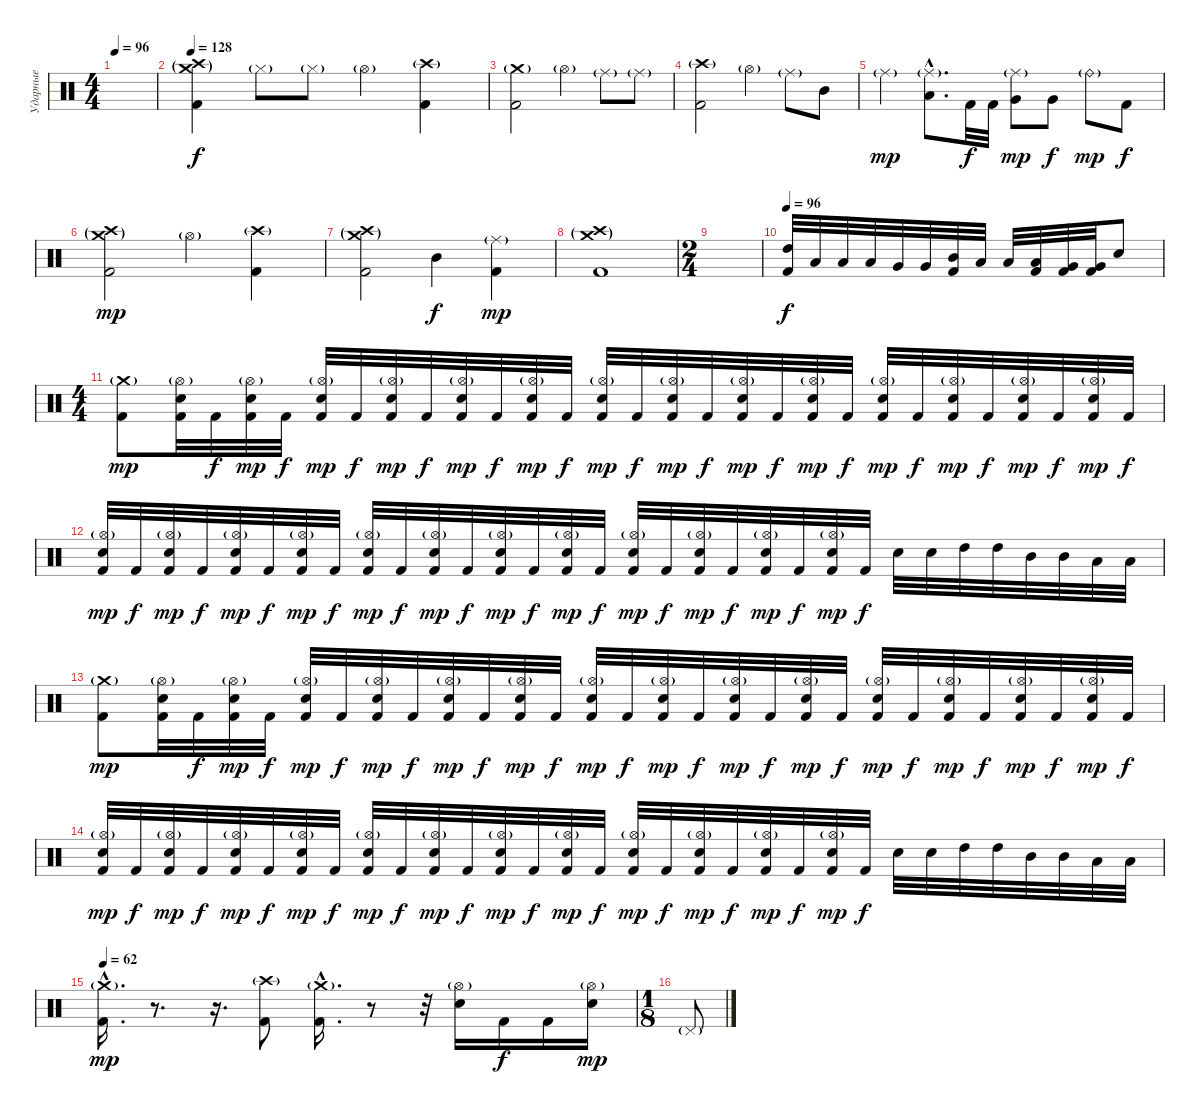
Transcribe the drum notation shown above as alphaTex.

\track ("Ударные" "Ударные") {instrument percussion}
\staff {score}
\articulation defaults
\ts (4 4)
\tempo 96
\clef neutral
\ks c
|
\tempo 128
("Crash high (hit)"{g} "Crash medium (hit)"{g} "Kick (hit) 2").4 "Hi-Hat (closed)"{g}.8 "Hi-Hat (closed)"{g}.8 "Hi-Hat (open)"{g}.4 ("Crash high (hit)"{g} "Kick (hit) 2").4 |
("Crash medium (hit)"{g} "Kick (hit) 2").2 "Hi-Hat (open)"{g}.4 "Ride (middle)"{g}.8 "Ride (middle)"{g}.8 |
("Crash high (hit)"{g} "Kick (hit) 2").2 "Hi-Hat (open)"{g}.4 "Ride (middle)"{g}.8 "Mid Tom (hit)".8{dy f} |
"Ride (middle)"{g}.4{dy mp} ("Ride (middle)"{g hac} "Low Tom (hit)"{hac}).8{d} "Kick (hit) 2".32{dy f} "Kick (hit) 2".32 ("Ride (middle)"{g} "Very Low Tom (hit)").8{dy mp} "Very Low Tom (hit)".8{dy f} "Ride (bell)"{g}.8{dy mp} "Kick (hit) 2".8{dy f} |
("Crash high (hit)"{g} "Crash medium (hit)"{g} "Kick (hit) 2").2{dy mp} "Hi-Hat (open)"{g}.4 ("Crash high (hit)"{g} "Kick (hit) 2").4 |
("Crash high (hit)"{g} "Crash medium (hit)"{g} "Kick (hit) 2").2 "Mid Tom (hit)".4{dy f} ("Ride (middle)"{g} "Kick (hit) 2").4{dy mp} |
("Crash high (hit)"{g} "Crash medium (hit)"{g} "Kick (hit) 2").1 |
\ts (2 4)
|
\tempo 96
("High Tom (hit)" "Kick (hit) 2").32{dy f} "Low Tom (hit)".32 "Low Tom (hit)".32 "Low Tom (hit)".32 "Very Low Tom (hit)".32 "Very Low Tom (hit)".32 ("Mid Tom (hit)" "Kick (hit) 2").32 "Low Tom (hit)".32 "Low Tom (hit)".32 ("Low Tom (hit)" "Kick (hit) 2").32 ("Very Low Tom (hit)" "Kick (hit) 2").32 ("Very Low Tom (hit)" "Kick (hit) 2").32 "Electric Snare (hit)".8 |
\ts (4 4)
("Crash medium (hit)"{g} "Kick (hit) 2").8{dy mp} ("Hi-Hat (open)"{g} "Electric Snare (hit)" "Kick (hit) 2").32 "Kick (hit) 2".32{dy f} ("Hi-Hat (open)"{g} "Electric Snare (hit)" "Kick (hit) 2").32{dy mp} "Kick (hit) 2".32{dy f} ("Hi-Hat (open)"{g} "Electric Snare (hit)" "Kick (hit) 2").32{dy mp} "Kick (hit) 2".32{dy f} ("Hi-Hat (open)"{g} "Electric Snare (hit)" "Kick (hit) 2").32{dy mp} "Kick (hit) 2".32{dy f} ("Hi-Hat (open)"{g} "Electric Snare (hit)" "Kick (hit) 2").32{dy mp} "Kick (hit) 2".32{dy f} ("Hi-Hat (open)"{g} "Electric Snare (hit)" "Kick (hit) 2").32{dy mp} "Kick (hit) 2".32{dy f} ("Hi-Hat (open)"{g} "Electric Snare (hit)" "Kick (hit) 2").32{dy mp} "Kick (hit) 2".32{dy f} ("Hi-Hat (open)"{g} "Electric Snare (hit)" "Kick (hit) 2").32{dy mp} "Kick (hit) 2".32{dy f} ("Hi-Hat (open)"{g} "Electric Snare (hit)" "Kick (hit) 2").32{dy mp} "Kick (hit) 2".32{dy f} ("Hi-Hat (open)"{g} "Electric Snare (hit)" "Kick (hit) 2").32{dy mp} "Kick (hit) 2".32{dy f} ("Hi-Hat (open)"{g} "Electric Snare (hit)" "Kick (hit) 2").32{dy mp} "Kick (hit) 2".32{dy f} ("Hi-Hat (open)"{g} "Electric Snare (hit)" "Kick (hit) 2").32{dy mp} "Kick (hit) 2".32{dy f} ("Hi-Hat (open)"{g} "Electric Snare (hit)" "Kick (hit) 2").32{dy mp} "Kick (hit) 2".32{dy f} ("Hi-Hat (open)"{g} "Electric Snare (hit)" "Kick (hit) 2").32{dy mp} "Kick (hit) 2".32{dy f} |
("Hi-Hat (open)"{g} "Electric Snare (hit)" "Kick (hit) 2").32{dy mp} "Kick (hit) 2".32{dy f} ("Hi-Hat (open)"{g} "Electric Snare (hit)" "Kick (hit) 2").32{dy mp} "Kick (hit) 2".32{dy f} ("Hi-Hat (open)"{g} "Electric Snare (hit)" "Kick (hit) 2").32{dy mp} "Kick (hit) 2".32{dy f} ("Hi-Hat (open)"{g} "Electric Snare (hit)" "Kick (hit) 2").32{dy mp} "Kick (hit) 2".32{dy f} ("Hi-Hat (open)"{g} "Electric Snare (hit)" "Kick (hit) 2").32{dy mp} "Kick (hit) 2".32{dy f} ("Hi-Hat (open)"{g} "Electric Snare (hit)" "Kick (hit) 2").32{dy mp} "Kick (hit) 2".32{dy f} ("Hi-Hat (open)"{g} "Electric Snare (hit)" "Kick (hit) 2").32{dy mp} "Kick (hit) 2".32{dy f} ("Hi-Hat (open)"{g} "Electric Snare (hit)" "Kick (hit) 2").32{dy mp} "Kick (hit) 2".32{dy f} ("Hi-Hat (open)"{g} "Electric Snare (hit)" "Kick (hit) 2").32{dy mp} "Kick (hit) 2".32{dy f} ("Hi-Hat (open)"{g} "Electric Snare (hit)" "Kick (hit) 2").32{dy mp} "Kick (hit) 2".32{dy f} ("Hi-Hat (open)"{g} "Electric Snare (hit)" "Kick (hit) 2").32{dy mp} "Kick (hit) 2".32{dy f} ("Hi-Hat (open)"{g} "Electric Snare (hit)" "Kick (hit) 2").32{dy mp} "Kick (hit) 2".32{dy f} "Electric Snare (hit)".32 "Electric Snare (hit)".32 "High Tom (hit)".32 "High Tom (hit)".32 "Mid Tom (hit)".32 "Mid Tom (hit)".32 "Low Tom (hit)".32 "Low Tom (hit)".32 |
("Crash medium (hit)"{g} "Kick (hit) 2").8{dy mp} ("Hi-Hat (open)"{g} "Electric Snare (hit)" "Kick (hit) 2").32 "Kick (hit) 2".32{dy f} ("Hi-Hat (open)"{g} "Electric Snare (hit)" "Kick (hit) 2").32{dy mp} "Kick (hit) 2".32{dy f} ("Hi-Hat (open)"{g} "Electric Snare (hit)" "Kick (hit) 2").32{dy mp} "Kick (hit) 2".32{dy f} ("Hi-Hat (open)"{g} "Electric Snare (hit)" "Kick (hit) 2").32{dy mp} "Kick (hit) 2".32{dy f} ("Hi-Hat (open)"{g} "Electric Snare (hit)" "Kick (hit) 2").32{dy mp} "Kick (hit) 2".32{dy f} ("Hi-Hat (open)"{g} "Electric Snare (hit)" "Kick (hit) 2").32{dy mp} "Kick (hit) 2".32{dy f} ("Hi-Hat (open)"{g} "Electric Snare (hit)" "Kick (hit) 2").32{dy mp} "Kick (hit) 2".32{dy f} ("Hi-Hat (open)"{g} "Electric Snare (hit)" "Kick (hit) 2").32{dy mp} "Kick (hit) 2".32{dy f} ("Hi-Hat (open)"{g} "Electric Snare (hit)" "Kick (hit) 2").32{dy mp} "Kick (hit) 2".32{dy f} ("Hi-Hat (open)"{g} "Electric Snare (hit)" "Kick (hit) 2").32{dy mp} "Kick (hit) 2".32{dy f} ("Hi-Hat (open)"{g} "Electric Snare (hit)" "Kick (hit) 2").32{dy mp} "Kick (hit) 2".32{dy f} ("Hi-Hat (open)"{g} "Electric Snare (hit)" "Kick (hit) 2").32{dy mp} "Kick (hit) 2".32{dy f} ("Hi-Hat (open)"{g} "Electric Snare (hit)" "Kick (hit) 2").32{dy mp} "Kick (hit) 2".32{dy f} ("Hi-Hat (open)"{g} "Electric Snare (hit)" "Kick (hit) 2").32{dy mp} "Kick (hit) 2".32{dy f} |
("Hi-Hat (open)"{g} "Electric Snare (hit)" "Kick (hit) 2").32{dy mp} "Kick (hit) 2".32{dy f} ("Hi-Hat (open)"{g} "Electric Snare (hit)" "Kick (hit) 2").32{dy mp} "Kick (hit) 2".32{dy f} ("Hi-Hat (open)"{g} "Electric Snare (hit)" "Kick (hit) 2").32{dy mp} "Kick (hit) 2".32{dy f} ("Hi-Hat (open)"{g} "Electric Snare (hit)" "Kick (hit) 2").32{dy mp} "Kick (hit) 2".32{dy f} ("Hi-Hat (open)"{g} "Electric Snare (hit)" "Kick (hit) 2").32{dy mp} "Kick (hit) 2".32{dy f} ("Hi-Hat (open)"{g} "Electric Snare (hit)" "Kick (hit) 2").32{dy mp} "Kick (hit) 2".32{dy f} ("Hi-Hat (open)"{g} "Electric Snare (hit)" "Kick (hit) 2").32{dy mp} "Kick (hit) 2".32{dy f} ("Hi-Hat (open)"{g} "Electric Snare (hit)" "Kick (hit) 2").32{dy mp} "Kick (hit) 2".32{dy f} ("Hi-Hat (open)"{g} "Electric Snare (hit)" "Kick (hit) 2").32{dy mp} "Kick (hit) 2".32{dy f} ("Hi-Hat (open)"{g} "Electric Snare (hit)" "Kick (hit) 2").32{dy mp} "Kick (hit) 2".32{dy f} ("Hi-Hat (open)"{g} "Electric Snare (hit)" "Kick (hit) 2").32{dy mp} "Kick (hit) 2".32{dy f} ("Hi-Hat (open)"{g} "Electric Snare (hit)" "Kick (hit) 2").32{dy mp} "Kick (hit) 2".32{dy f} "Electric Snare (hit)".32 "Electric Snare (hit)".32 "High Tom (hit)".32 "High Tom (hit)".32 "Mid Tom (hit)".32 "Mid Tom (hit)".32 "Low Tom (hit)".32 "Low Tom (hit)".32 |
\tempo 62
("Crash medium (hit)"{g hac} "Kick (hit) 2"{hac}).16{d dy mp} r.8{d volume 0} r.16{d} ("Crash high (hit)"{g} "Kick (hit) 2").8{volume 16} ("Crash medium (hit)"{g hac} "Kick (hit) 2"{hac}).16{d} r.8{volume 0} r.32{volume 16} ("Hi-Hat (open)"{g} "Electric Snare (hit)").16 "Kick (hit) 2".16{dy f} "Kick (hit) 2".16 ("Hi-Hat (open)"{g} "Electric Snare (hit)").16{dy mp} |
\ts (1 8)
"Pedal Hi-Hat (hit)"{g}.8{volume 7}
